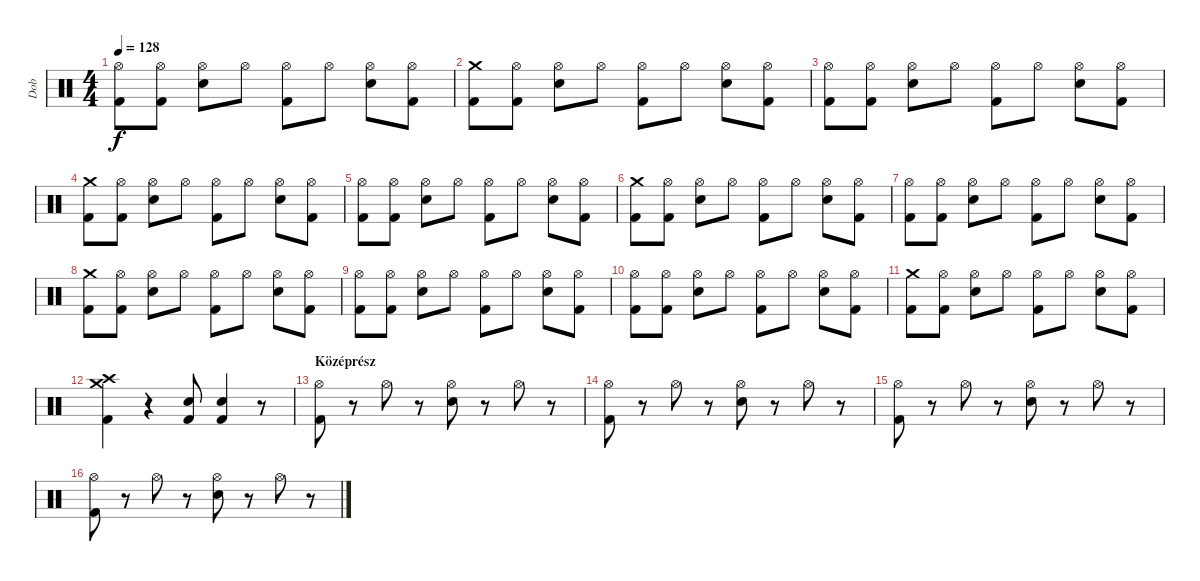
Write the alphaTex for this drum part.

\track ("Dob" "Dob") {instrument percussion}
\staff {score}
\articulation defaults
\ts (4 4)
\tempo 128
\clef neutral
\ks c
("Hi-Hat (open)" "Kick (hit) 2").8{dy f} ("Hi-Hat (open)" "Kick (hit) 2").8 ("Hi-Hat (open)" "Snare (hit) 2").8 "Hi-Hat (open)".8 ("Hi-Hat (open)" "Kick (hit) 2").8 "Hi-Hat (open)".8 ("Hi-Hat (open)" "Snare (hit) 2").8 ("Hi-Hat (open)" "Kick (hit) 2").8 |
("Crash medium (hit)" "Kick (hit) 2").8 ("Hi-Hat (open)" "Kick (hit) 2").8 ("Hi-Hat (open)" "Snare (hit) 2").8 "Hi-Hat (open)".8 ("Hi-Hat (open)" "Kick (hit) 2").8 "Hi-Hat (open)".8 ("Hi-Hat (open)" "Snare (hit) 2").8 ("Hi-Hat (open)" "Kick (hit) 2").8 |
("Hi-Hat (open)" "Kick (hit) 2").8 ("Hi-Hat (open)" "Kick (hit) 2").8 ("Hi-Hat (open)" "Snare (hit) 2").8 "Hi-Hat (open)".8 ("Hi-Hat (open)" "Kick (hit) 2").8 "Hi-Hat (open)".8 ("Hi-Hat (open)" "Snare (hit) 2").8 ("Hi-Hat (open)" "Kick (hit) 2").8 |
("Crash medium (hit)" "Kick (hit) 2").8 ("Hi-Hat (open)" "Kick (hit) 2").8 ("Hi-Hat (open)" "Snare (hit) 2").8 "Hi-Hat (open)".8 ("Hi-Hat (open)" "Kick (hit) 2").8 "Hi-Hat (open)".8 ("Hi-Hat (open)" "Snare (hit) 2").8 ("Hi-Hat (open)" "Kick (hit) 2").8 |
("Hi-Hat (open)" "Kick (hit) 2").8 ("Hi-Hat (open)" "Kick (hit) 2").8 ("Hi-Hat (open)" "Snare (hit) 2").8 "Hi-Hat (open)".8 ("Hi-Hat (open)" "Kick (hit) 2").8 "Hi-Hat (open)".8 ("Hi-Hat (open)" "Snare (hit) 2").8 ("Hi-Hat (open)" "Kick (hit) 2").8 |
("Crash medium (hit)" "Kick (hit) 2").8 ("Hi-Hat (open)" "Kick (hit) 2").8 ("Hi-Hat (open)" "Snare (hit) 2").8 "Hi-Hat (open)".8 ("Hi-Hat (open)" "Kick (hit) 2").8 "Hi-Hat (open)".8 ("Hi-Hat (open)" "Snare (hit) 2").8 ("Hi-Hat (open)" "Kick (hit) 2").8 |
("Hi-Hat (open)" "Kick (hit) 2").8 ("Hi-Hat (open)" "Kick (hit) 2").8 ("Hi-Hat (open)" "Snare (hit) 2").8 "Hi-Hat (open)".8 ("Hi-Hat (open)" "Kick (hit) 2").8 "Hi-Hat (open)".8 ("Hi-Hat (open)" "Snare (hit) 2").8 ("Hi-Hat (open)" "Kick (hit) 2").8 |
("Crash medium (hit)" "Kick (hit) 2").8 ("Hi-Hat (open)" "Kick (hit) 2").8 ("Hi-Hat (open)" "Snare (hit) 2").8 "Hi-Hat (open)".8 ("Hi-Hat (open)" "Kick (hit) 2").8 "Hi-Hat (open)".8 ("Hi-Hat (open)" "Snare (hit) 2").8 ("Hi-Hat (open)" "Kick (hit) 2").8 |
("Hi-Hat (open)" "Kick (hit) 2").8 ("Hi-Hat (open)" "Kick (hit) 2").8 ("Hi-Hat (open)" "Snare (hit) 2").8 "Hi-Hat (open)".8 ("Hi-Hat (open)" "Kick (hit) 2").8 "Hi-Hat (open)".8 ("Hi-Hat (open)" "Snare (hit) 2").8 ("Hi-Hat (open)" "Kick (hit) 2").8 |
("Hi-Hat (open)" "Kick (hit) 2").8 ("Hi-Hat (open)" "Kick (hit) 2").8 ("Hi-Hat (open)" "Snare (hit) 2").8 "Hi-Hat (open)".8 ("Hi-Hat (open)" "Kick (hit) 2").8 "Hi-Hat (open)".8 ("Hi-Hat (open)" "Snare (hit) 2").8 ("Hi-Hat (open)" "Kick (hit) 2").8 |
("Crash medium (hit)" "Kick (hit) 2").8 ("Hi-Hat (open)" "Kick (hit) 2").8 ("Hi-Hat (open)" "Snare (hit) 2").8 "Hi-Hat (open)".8 ("Hi-Hat (open)" "Kick (hit) 2").8 "Hi-Hat (open)".8 ("Hi-Hat (open)" "Snare (hit) 2").8 ("Hi-Hat (open)" "Kick (hit) 2").8 |
("Crash medium (hit)" "Crash high (hit)" "Kick (hit) 2").4 r.4 ("Snare (hit) 2" "Kick (hit) 2").8 ("Snare (hit) 2" "Kick (hit) 2").4 r.8 |
\section ("" "Középrész")
("Hi-Hat (open)" "Kick (hit) 2").8 r.8 "Hi-Hat (open)".8 r.8 ("Hi-Hat (open)" "Snare (hit) 2").8 r.8 "Hi-Hat (open)".8 r.8 |
("Hi-Hat (open)" "Kick (hit) 2").8 r.8 "Hi-Hat (open)".8 r.8 ("Hi-Hat (open)" "Snare (hit) 2").8 r.8 "Hi-Hat (open)".8 r.8 |
("Hi-Hat (open)" "Kick (hit) 2").8 r.8 "Hi-Hat (open)".8 r.8 ("Hi-Hat (open)" "Snare (hit) 2").8 r.8 "Hi-Hat (open)".8 r.8 |
("Hi-Hat (open)" "Kick (hit) 2").8 r.8 "Hi-Hat (open)".8 r.8 ("Hi-Hat (open)" "Snare (hit) 2").8 r.8 "Hi-Hat (open)".8 r.8
